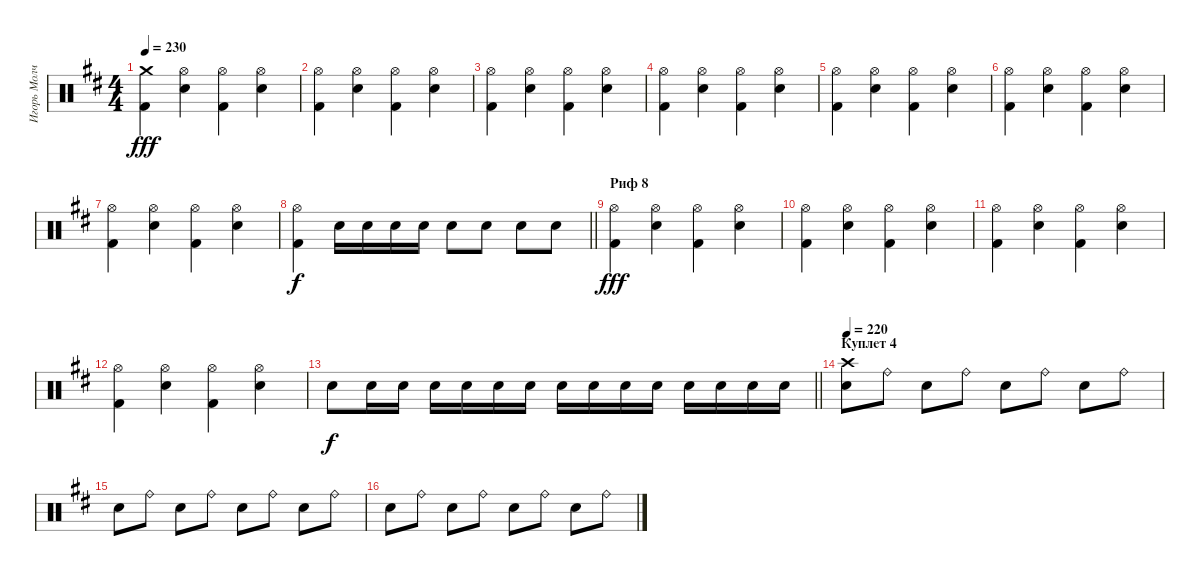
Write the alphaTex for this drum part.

\track ("Игорь Молчанов" "Игорь Молч") {instrument percussion}
\staff {score}
\articulation defaults
\ts (4 4)
\tempo 230
\clef neutral
\ks d
("Crash medium (hit)" "Kick (hit) 2").4{dy fff} ("Hi-Hat (open)" "Electric Snare (hit)").4 ("Hi-Hat (open)" "Kick (hit) 2").4 ("Hi-Hat (open)" "Electric Snare (hit)").4 |
("Hi-Hat (open)" "Kick (hit) 2").4 ("Hi-Hat (open)" "Electric Snare (hit)").4 ("Hi-Hat (open)" "Kick (hit) 2").4 ("Hi-Hat (open)" "Electric Snare (hit)").4 |
("Hi-Hat (open)" "Kick (hit) 2").4 ("Hi-Hat (open)" "Electric Snare (hit)").4 ("Hi-Hat (open)" "Kick (hit) 2").4 ("Hi-Hat (open)" "Electric Snare (hit)").4 |
("Hi-Hat (open)" "Kick (hit) 2").4 ("Hi-Hat (open)" "Electric Snare (hit)").4 ("Hi-Hat (open)" "Kick (hit) 2").4 ("Hi-Hat (open)" "Electric Snare (hit)").4 |
("Hi-Hat (open)" "Kick (hit) 2").4 ("Hi-Hat (open)" "Electric Snare (hit)").4 ("Hi-Hat (open)" "Kick (hit) 2").4 ("Hi-Hat (open)" "Electric Snare (hit)").4 |
("Hi-Hat (open)" "Kick (hit) 2").4 ("Hi-Hat (open)" "Electric Snare (hit)").4 ("Hi-Hat (open)" "Kick (hit) 2").4 ("Hi-Hat (open)" "Electric Snare (hit)").4 |
("Hi-Hat (open)" "Kick (hit) 2").4 ("Hi-Hat (open)" "Electric Snare (hit)").4 ("Hi-Hat (open)" "Kick (hit) 2").4 ("Hi-Hat (open)" "Electric Snare (hit)").4 |
\barLineRight lightlight
("Hi-Hat (open)" "Kick (hit) 2").4{dy f} "Electric Snare (hit)".16 "Electric Snare (hit)".16 "Electric Snare (hit)".16 "Electric Snare (hit)".16 "Electric Snare (hit)".8 "Electric Snare (hit)".8 "Electric Snare (hit)".8 "Electric Snare (hit)".8 |
\section ("" "Риф 8")
("Hi-Hat (open)" "Kick (hit) 2").4{dy fff} ("Hi-Hat (open)" "Electric Snare (hit)").4 ("Hi-Hat (open)" "Kick (hit) 2").4 ("Hi-Hat (open)" "Electric Snare (hit)").4 |
("Hi-Hat (open)" "Kick (hit) 2").4 ("Hi-Hat (open)" "Electric Snare (hit)").4 ("Hi-Hat (open)" "Kick (hit) 2").4 ("Hi-Hat (open)" "Electric Snare (hit)").4 |
("Hi-Hat (open)" "Kick (hit) 2").4 ("Hi-Hat (open)" "Electric Snare (hit)").4 ("Hi-Hat (open)" "Kick (hit) 2").4 ("Hi-Hat (open)" "Electric Snare (hit)").4 |
("Hi-Hat (open)" "Kick (hit) 2").4 ("Hi-Hat (open)" "Electric Snare (hit)").4 ("Hi-Hat (open)" "Kick (hit) 2").4 ("Hi-Hat (open)" "Electric Snare (hit)").4 |
\barLineRight lightlight "Electric Snare (hit)".8{dy f} "Electric Snare (hit)".16 "Electric Snare (hit)".16 "Electric Snare (hit)".16 "Electric Snare (hit)".16 "Electric Snare (hit)".16 "Electric Snare (hit)".16 "Electric Snare (hit)".16 "Electric Snare (hit)".16 "Electric Snare (hit)".16 "Electric Snare (hit)".16 "Electric Snare (hit)".16 "Electric Snare (hit)".16 "Electric Snare (hit)".16 "Electric Snare (hit)".16
|
\section ("" "Куплет 4")
\tempo 220
("Crash high (hit)" "Snare (hit) 2").8 "Ride (bell)".8 "Snare (hit) 2".8 "Ride (bell)".8 "Snare (hit) 2".8 "Ride (bell)".8 "Snare (hit) 2".8 "Ride (bell)".8 |
"Snare (hit) 2".8 "Ride (bell)".8 "Snare (hit) 2".8 "Ride (bell)".8 "Snare (hit) 2".8 "Ride (bell)".8 "Snare (hit) 2".8 "Ride (bell)".8 |
"Snare (hit) 2".8 "Ride (bell)".8 "Snare (hit) 2".8 "Ride (bell)".8 "Snare (hit) 2".8 "Ride (bell)".8 "Snare (hit) 2".8 "Ride (bell)".8
